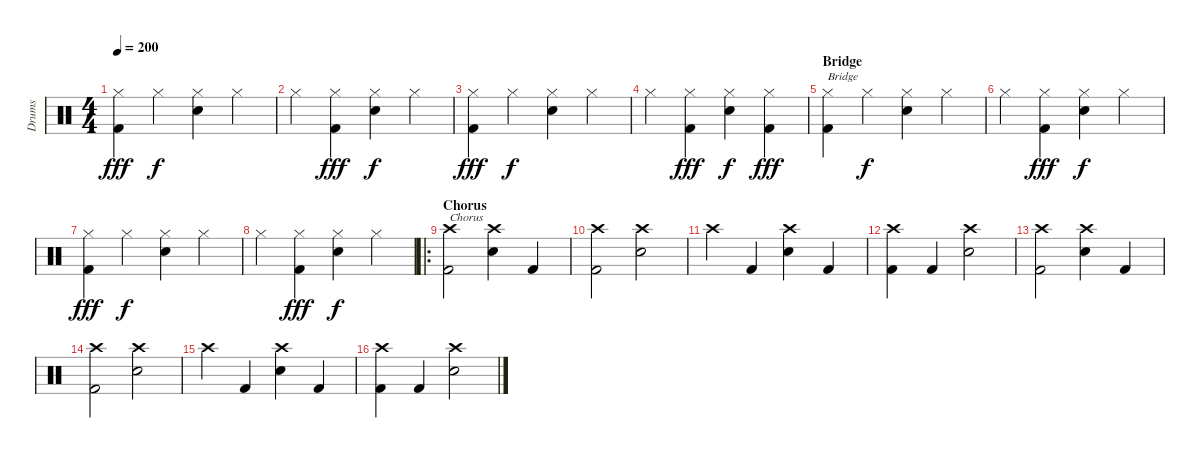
\track ("Drums" "Drums") {instrument percussion}
\staff {score}
\articulation defaults
\ts (4 4)
\tempo 200
\clef neutral
\ks c
("Hi-Hat (closed)" "Kick (hit) 2").4{dy fff} "Hi-Hat (closed)".4{dy f} ("Hi-Hat (closed)" "Electric Snare (hit)").4 "Hi-Hat (closed)".4 |
"Hi-Hat (closed)".4 ("Hi-Hat (closed)" "Kick (hit) 2").4{dy fff} ("Hi-Hat (closed)" "Electric Snare (hit)").4{dy f} "Hi-Hat (closed)".4 |
("Hi-Hat (closed)" "Kick (hit) 2").4{dy fff} "Hi-Hat (closed)".4{dy f} ("Hi-Hat (closed)" "Electric Snare (hit)").4 "Hi-Hat (closed)".4 |
"Hi-Hat (closed)".4 ("Hi-Hat (closed)" "Kick (hit) 2").4{dy fff} ("Hi-Hat (closed)" "Electric Snare (hit)").4{dy f} ("Hi-Hat (closed)" "Kick (hit) 2").4{dy fff} |
\section ("" "Bridge")
("Hi-Hat (closed)" "Kick (hit) 2").4{txt "Bridge"} "Hi-Hat (closed)".4{dy f} ("Hi-Hat (closed)" "Electric Snare (hit)").4 "Hi-Hat (closed)".4 |
"Hi-Hat (closed)".4 ("Hi-Hat (closed)" "Kick (hit) 2").4{dy fff} ("Hi-Hat (closed)" "Electric Snare (hit)").4{dy f} "Hi-Hat (closed)".4 |
("Hi-Hat (closed)" "Kick (hit) 2").4{dy fff} "Hi-Hat (closed)".4{dy f} ("Hi-Hat (closed)" "Electric Snare (hit)").4 "Hi-Hat (closed)".4 |
"Hi-Hat (closed)".4 ("Hi-Hat (closed)" "Kick (hit) 2").4{dy fff} ("Hi-Hat (closed)" "Electric Snare (hit)").4{dy f} "Hi-Hat (closed)".4 |
\ro
\section ("" "Chorus")
("Crash high (hit)" "Kick (hit) 2").2{txt "Chorus"} ("Crash high (hit)" "Electric Snare (hit)").4 "Kick (hit) 2".4 |
("Crash high (hit)" "Kick (hit) 2").2 ("Crash high (hit)" "Electric Snare (hit)").2 |
"Crash high (hit)".4 "Kick (hit) 2".4 ("Crash high (hit)" "Electric Snare (hit)").4 "Kick (hit) 2".4 |
("Crash high (hit)" "Kick (hit) 2").4 "Kick (hit) 2".4 ("Crash high (hit)" "Electric Snare (hit)").2 |
("Crash high (hit)" "Kick (hit) 2").2 ("Crash high (hit)" "Electric Snare (hit)").4 "Kick (hit) 2".4 |
("Crash high (hit)" "Kick (hit) 2").2 ("Crash high (hit)" "Electric Snare (hit)").2 |
"Crash high (hit)".4 "Kick (hit) 2".4 ("Crash high (hit)" "Electric Snare (hit)").4 "Kick (hit) 2".4 |
("Crash high (hit)" "Kick (hit) 2").4 "Kick (hit) 2".4 ("Crash high (hit)" "Electric Snare (hit)").2
